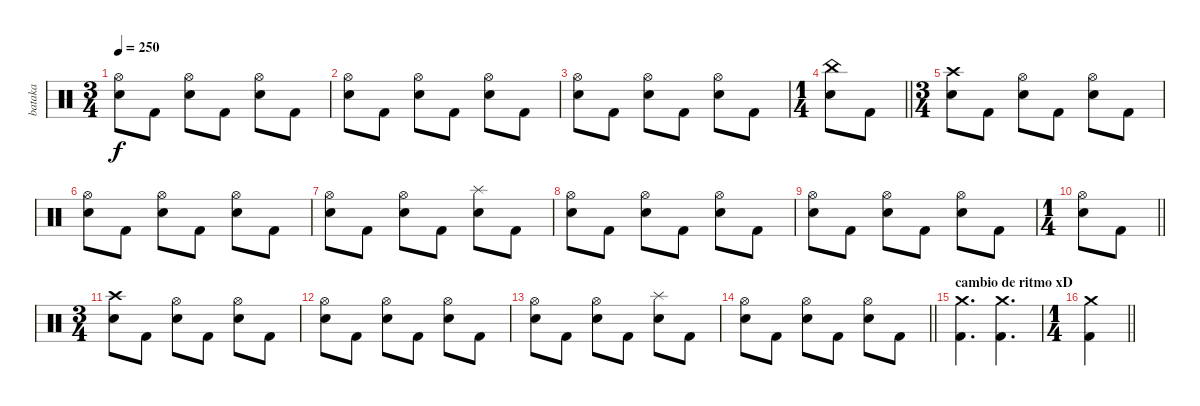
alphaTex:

\track ("bataka" "bataka") {instrument percussion}
\staff {score}
\articulation defaults
\ts (3 4)
\tempo 250
\clef neutral
\ks c
("Hi-Hat (open)" "Electric Snare (hit)").8{dy f} "Kick (hit) 2".8 ("Hi-Hat (open)" "Electric Snare (hit)").8 "Kick (hit) 2".8 ("Hi-Hat (open)" "Electric Snare (hit)").8 "Kick (hit) 2".8 |
("Hi-Hat (open)" "Electric Snare (hit)").8 "Kick (hit) 2".8 ("Hi-Hat (open)" "Electric Snare (hit)").8 "Kick (hit) 2".8 ("Hi-Hat (open)" "Electric Snare (hit)").8 "Kick (hit) 2".8 |
("Hi-Hat (open)" "Electric Snare (hit)").8 "Kick (hit) 2".8 ("Hi-Hat (open)" "Electric Snare (hit)").8 "Kick (hit) 2".8 ("Hi-Hat (open)" "Electric Snare (hit)").8 "Kick (hit) 2".8 |
\ts (1 4)
\barLineRight lightlight
("China (hit)" "Electric Snare (hit)").8 "Kick (hit) 2".8 |
\ts (3 4)
("Crash high (hit)" "Electric Snare (hit)").8 "Kick (hit) 2".8 ("Hi-Hat (open)" "Electric Snare (hit)").8 "Kick (hit) 2".8 ("Hi-Hat (open)" "Electric Snare (hit)").8 "Kick (hit) 2".8 |
("Hi-Hat (open)" "Electric Snare (hit)").8 "Kick (hit) 2".8 ("Hi-Hat (open)" "Electric Snare (hit)").8 "Kick (hit) 2".8 ("Hi-Hat (open)" "Electric Snare (hit)").8 "Kick (hit) 2".8 |
("Hi-Hat (open)" "Electric Snare (hit)").8 "Kick (hit) 2".8 ("Hi-Hat (open)" "Electric Snare (hit)").8 "Kick (hit) 2".8 ("Splash (hit)" "Electric Snare (hit)").8 "Kick (hit) 2".8 |
("Hi-Hat (open)" "Electric Snare (hit)").8 "Kick (hit) 2".8 ("Hi-Hat (open)" "Electric Snare (hit)").8 "Kick (hit) 2".8 ("Hi-Hat (open)" "Electric Snare (hit)").8 "Kick (hit) 2".8 |
("Hi-Hat (open)" "Electric Snare (hit)").8 "Kick (hit) 2".8 ("Hi-Hat (open)" "Electric Snare (hit)").8 "Kick (hit) 2".8 ("Hi-Hat (open)" "Electric Snare (hit)").8 "Kick (hit) 2".8 |
\ts (1 4)
\barLineRight lightlight
("Hi-Hat (open)" "Electric Snare (hit)").8 "Kick (hit) 2".8 |
\ts (3 4)
("Crash high (hit)" "Electric Snare (hit)").8 "Kick (hit) 2".8 ("Hi-Hat (open)" "Electric Snare (hit)").8 "Kick (hit) 2".8 ("Hi-Hat (open)" "Electric Snare (hit)").8 "Kick (hit) 2".8 |
("Hi-Hat (open)" "Electric Snare (hit)").8 "Kick (hit) 2".8 ("Hi-Hat (open)" "Electric Snare (hit)").8 "Kick (hit) 2".8 ("Hi-Hat (open)" "Electric Snare (hit)").8 "Kick (hit) 2".8 |
("Hi-Hat (open)" "Electric Snare (hit)").8 "Kick (hit) 2".8 ("Hi-Hat (open)" "Electric Snare (hit)").8 "Kick (hit) 2".8 ("Splash (hit)" "Electric Snare (hit)").8 "Kick (hit) 2".8 |
\barLineRight lightlight
("Hi-Hat (open)" "Electric Snare (hit)").8 "Kick (hit) 2".8 ("Hi-Hat (open)" "Electric Snare (hit)").8 "Kick (hit) 2".8 ("Hi-Hat (open)" "Electric Snare (hit)").8 "Kick (hit) 2".8 |
\section ("" "cambio de ritmo xD")
("Crash medium (hit)" "Kick (hit) 2").4{d} ("Crash medium (hit)" "Kick (hit) 2").4{d} |
\ts (1 4)
\barLineRight lightlight
("Crash medium (hit)" "Kick (hit) 2").4
